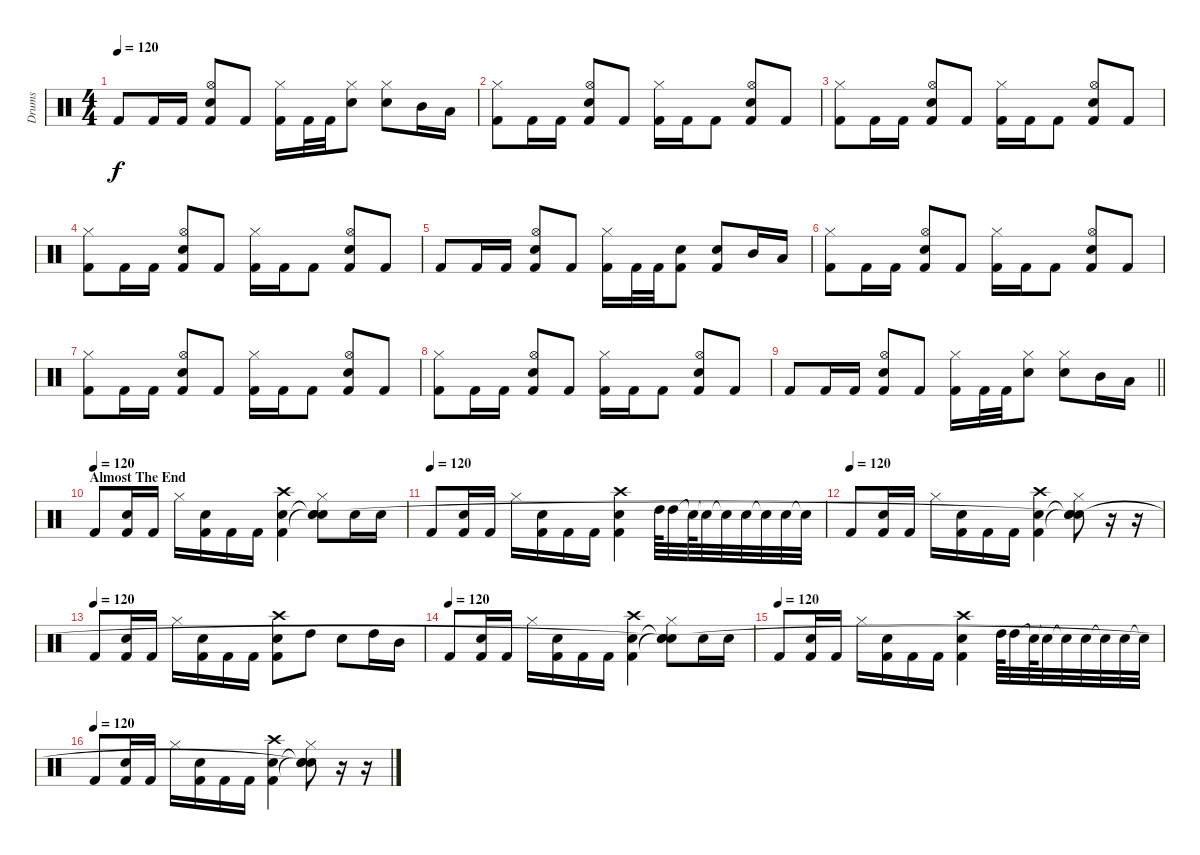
\track ("Drums" "Drums") {instrument percussion}
\staff {score}
\articulation defaults
\ts (4 4)
\tempo 120
\clef neutral
\ks c "Kick (hit) 2".8{dy f} "Kick (hit) 2".16 "Kick (hit) 2".16
("Hi-Hat (open)" "Electric Snare (hit)" "Kick (hit) 2").8 "Kick (hit) 2".8 ("Hi-Hat (closed)" "Kick (hit) 2").16 "Kick (hit) 2".32 "Kick (hit) 2".32 ("Hi-Hat (closed)" "Electric Snare (hit)").8 ("Hi-Hat (closed)" "Electric Snare (hit)").8 "Mid Tom (hit)".16 "Low Tom (hit)".16 |
("Hi-Hat (closed)" "Kick (hit) 2").8 "Kick (hit) 2".16 "Kick (hit) 2".16 ("Hi-Hat (open)" "Electric Snare (hit)" "Kick (hit) 2").8 "Kick (hit) 2".8 ("Hi-Hat (closed)" "Kick (hit) 2").16 "Kick (hit) 2".16 "Kick (hit) 2".8 ("Hi-Hat (open)" "Electric Snare (hit)" "Kick (hit) 2").8 "Kick (hit) 2".8 |
("Hi-Hat (closed)" "Kick (hit) 2").8 "Kick (hit) 2".16 "Kick (hit) 2".16 ("Hi-Hat (open)" "Electric Snare (hit)" "Kick (hit) 2").8 "Kick (hit) 2".8 ("Hi-Hat (closed)" "Kick (hit) 2").16 "Kick (hit) 2".16 "Kick (hit) 2".8 ("Hi-Hat (open)" "Electric Snare (hit)" "Kick (hit) 2").8 "Kick (hit) 2".8 |
("Hi-Hat (closed)" "Kick (hit) 2").8 "Kick (hit) 2".16 "Kick (hit) 2".16 ("Hi-Hat (open)" "Electric Snare (hit)" "Kick (hit) 2").8 "Kick (hit) 2".8 ("Hi-Hat (closed)" "Kick (hit) 2").16 "Kick (hit) 2".16 "Kick (hit) 2".8 ("Hi-Hat (open)" "Electric Snare (hit)" "Kick (hit) 2").8 "Kick (hit) 2".8 |
"Kick (hit) 2".8 "Kick (hit) 2".16 "Kick (hit) 2".16 ("Hi-Hat (open)" "Electric Snare (hit)" "Kick (hit) 2").8 "Kick (hit) 2".8 ("Hi-Hat (closed)" "Kick (hit) 2").16 "Kick (hit) 2".32 "Kick (hit) 2".32 ("Electric Snare (hit)" "Kick (hit) 2").8 ("Electric Snare (hit)" "Kick (hit) 2").8 "Mid Tom (hit)".16 "Low Tom (hit)".16 |
("Hi-Hat (closed)" "Kick (hit) 2").8 "Kick (hit) 2".16 "Kick (hit) 2".16 ("Hi-Hat (open)" "Electric Snare (hit)" "Kick (hit) 2").8 "Kick (hit) 2".8 ("Hi-Hat (closed)" "Kick (hit) 2").16 "Kick (hit) 2".16 "Kick (hit) 2".8 ("Hi-Hat (open)" "Electric Snare (hit)" "Kick (hit) 2").8 "Kick (hit) 2".8 |
("Hi-Hat (closed)" "Kick (hit) 2").8 "Kick (hit) 2".16 "Kick (hit) 2".16 ("Hi-Hat (open)" "Electric Snare (hit)" "Kick (hit) 2").8 "Kick (hit) 2".8 ("Hi-Hat (closed)" "Kick (hit) 2").16 "Kick (hit) 2".16 "Kick (hit) 2".8 ("Hi-Hat (open)" "Electric Snare (hit)" "Kick (hit) 2").8 "Kick (hit) 2".8 |
("Hi-Hat (closed)" "Kick (hit) 2").8 "Kick (hit) 2".16 "Kick (hit) 2".16 ("Hi-Hat (open)" "Electric Snare (hit)" "Kick (hit) 2").8 "Kick (hit) 2".8 ("Hi-Hat (closed)" "Kick (hit) 2").16 "Kick (hit) 2".16 "Kick (hit) 2".8 ("Hi-Hat (open)" "Electric Snare (hit)" "Kick (hit) 2").8 "Kick (hit) 2".8 |
\barLineRight lightlight "Kick (hit) 2".8 "Kick (hit) 2".16 "Kick (hit) 2".16
("Hi-Hat (open)" "Electric Snare (hit)" "Kick (hit) 2").8 "Kick (hit) 2".8 ("Hi-Hat (closed)" "Kick (hit) 2").16 "Kick (hit) 2".32 "Kick (hit) 2".32 ("Hi-Hat (closed)" "Electric Snare (hit)").8 ("Hi-Hat (closed)" "Electric Snare (hit)").8 "Mid Tom (hit)".16 "Low Tom (hit)".16 |
\section ("" "Almost The End")
\tempo (120)
"Kick (hit) 2".8 ("Electric Snare (hit)" "Kick (hit) 2").16 "Kick (hit) 2".16 "Hi-Hat (closed)".16 ("Electric Snare (hit)" "Kick (hit) 2").16 "Kick (hit) 2".16 "Kick (hit) 2".16 ("Crash high (hit)" "Electric Snare (hit)" "Kick (hit) 2").4 ("Hi-Hat (closed)" "Snare (hit)"{t} "Snare (hit)"{t} "Snare (hit)").8 "Electric Snare (hit)".16 "Electric Snare (hit)".16 |
\tempo (120)
"Kick (hit) 2".8 ("Electric Snare (hit)" "Kick (hit) 2").16 "Kick (hit) 2".16 "Hi-Hat (closed)".16 ("Electric Snare (hit)" "Kick (hit) 2").16 "Kick (hit) 2".16 "Kick (hit) 2".16 ("Crash high (hit)" "Electric Snare (hit)" "Kick (hit) 2").4 "High Tom (hit)".64 "High Tom (hit)".32 "Snare (hit)"{t}.64 "Snare (hit)"{t}.32 "Snare (hit)"{t}.32 "Electric Snare (hit)".32 "Snare (hit)"{t}.32 "Electric Snare (hit)".32 "Snare (hit)"{t}.32 |
\tempo (120)
"Kick (hit) 2".8 ("Electric Snare (hit)" "Kick (hit) 2").16 "Kick (hit) 2".16 "Hi-Hat (closed)".16 ("Electric Snare (hit)" "Kick (hit) 2").16 "Kick (hit) 2".16 "Kick (hit) 2".16 ("Crash high (hit)" "Electric Snare (hit)" "Kick (hit) 2").4 ("Hi-Hat (closed)" "Snare (hit)"{t} "Snare (hit)"{t} "Snare (hit)"{t}).8 r.16 r.16 |
\tempo (120)
"Kick (hit) 2".8 ("Electric Snare (hit)" "Kick (hit) 2").16 "Kick (hit) 2".16 "Hi-Hat (closed)".16 ("Electric Snare (hit)" "Kick (hit) 2").16 "Kick (hit) 2".16 "Kick (hit) 2".16 ("Crash high (hit)" "Electric Snare (hit)" "Kick (hit) 2").8 "High Tom (hit)".8 "Electric Snare (hit)".8 "High Tom (hit)".16 "Mid Tom (hit)".16 |
\tempo (120)
"Kick (hit) 2".8 ("Electric Snare (hit)" "Kick (hit) 2").16 "Kick (hit) 2".16 "Hi-Hat (closed)".16 ("Electric Snare (hit)" "Kick (hit) 2").16 "Kick (hit) 2".16 "Kick (hit) 2".16 ("Crash high (hit)" "Electric Snare (hit)" "Kick (hit) 2").4 ("Hi-Hat (closed)" "Snare (hit)"{t} "Snare (hit)"{t} "Snare (hit)"{t}).8 "Electric Snare (hit)".16 "Electric Snare (hit)".16 |
\tempo (120)
"Kick (hit) 2".8 ("Electric Snare (hit)" "Kick (hit) 2").16 "Kick (hit) 2".16 "Hi-Hat (closed)".16 ("Electric Snare (hit)" "Kick (hit) 2").16 "Kick (hit) 2".16 "Kick (hit) 2".16 ("Crash high (hit)" "Electric Snare (hit)" "Kick (hit) 2").4 "High Tom (hit)".64 "High Tom (hit)".32 "Snare (hit)"{t}.64 "Snare (hit)"{t}.32 "Snare (hit)"{t}.32 "Electric Snare (hit)".32 "Snare (hit)"{t}.32 "Electric Snare (hit)".32 "Snare (hit)"{t}.32 |
\tempo (120)
"Kick (hit) 2".8 ("Electric Snare (hit)" "Kick (hit) 2").16 "Kick (hit) 2".16 "Hi-Hat (closed)".16 ("Electric Snare (hit)" "Kick (hit) 2").16 "Kick (hit) 2".16 "Kick (hit) 2".16 ("Crash high (hit)" "Electric Snare (hit)" "Kick (hit) 2").4 ("Hi-Hat (closed)" "Snare (hit)"{t} "Snare (hit)"{t} "Snare (hit)"{t}).8 r.16 r.16
